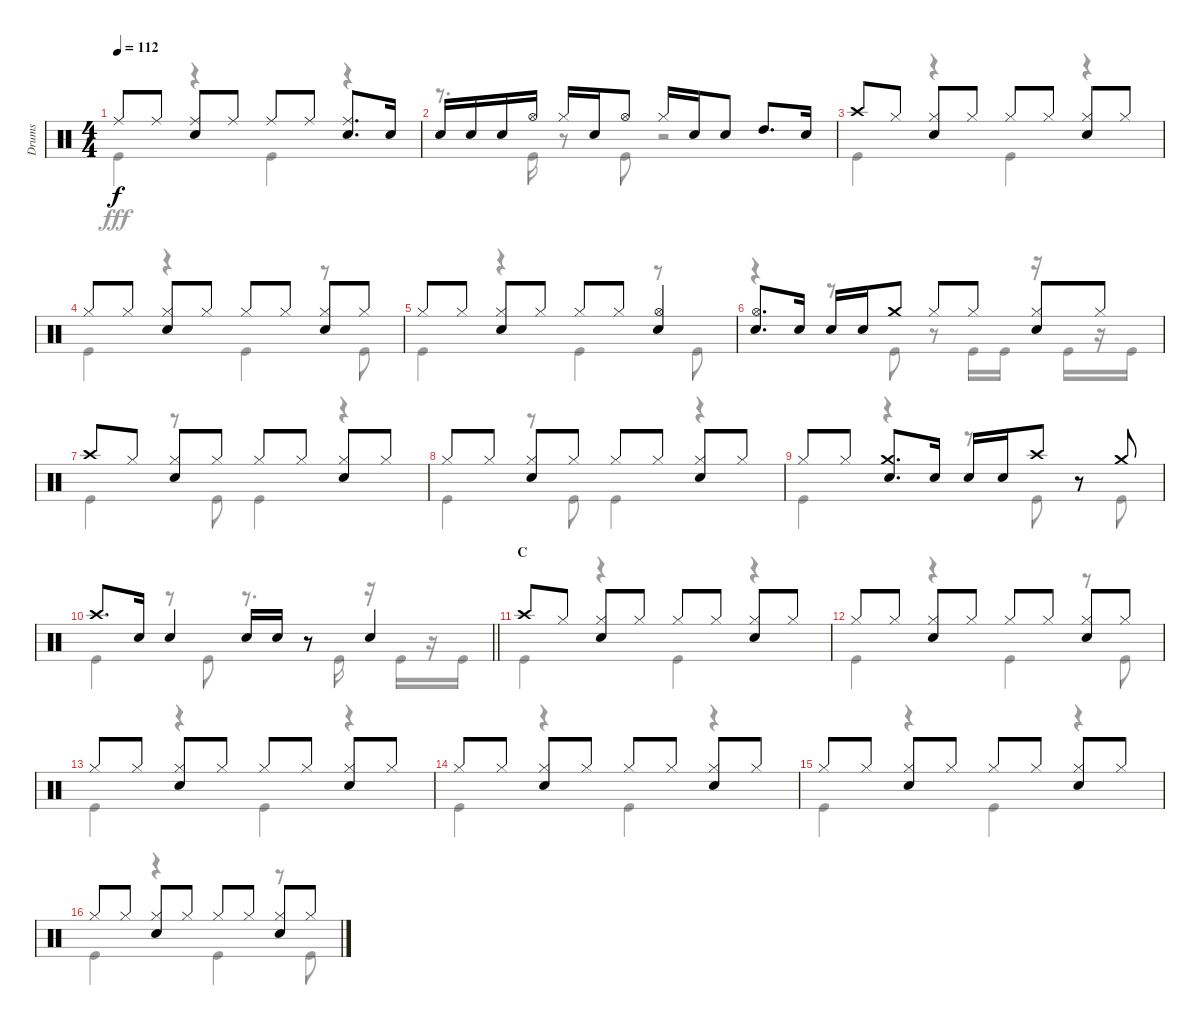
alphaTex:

\track ("Drums" "Drums") {instrument percussion}
\staff {score}
\articulation defaults
\voice
\ts (4 4)
\tempo 112
\clef neutral
\ks c "Ride (middle)".8{dy f} "Ride (middle)".8
("Ride (middle)" "Snare (hit) 2").8 "Ride (middle)".8 "Ride (middle)".8 "Ride (middle)".8 ("Ride (middle)" "Snare (hit) 2").8{d} "Snare (hit) 2".16 |
"Snare (hit) 2".16 "Snare (hit) 2".16 "Snare (hit) 2".16 "Hi-Hat (open)".16 "Hi-Hat (closed)".16 "Snare (hit) 2".16 "Hi-Hat (open)".8 "Hi-Hat (closed)".16 "Snare (hit) 2".16 "Snare (hit) 2".8 "High Tom (hit)".8{d} "Snare (hit) 2".16 |
"Crash high (hit)".8 "Hi-Hat (closed)".8 ("Hi-Hat (closed)" "Snare (hit) 2").8 "Hi-Hat (closed)".8 "Hi-Hat (closed)".8 "Hi-Hat (closed)".8 ("Hi-Hat (closed)" "Snare (hit) 2").8 "Hi-Hat (closed)".8 |
"Hi-Hat (closed)".8 "Hi-Hat (closed)".8 ("Hi-Hat (closed)" "Snare (hit) 2").8 "Hi-Hat (closed)".8 "Hi-Hat (closed)".8 "Hi-Hat (closed)".8 ("Hi-Hat (closed)" "Snare (hit) 2").8 "Hi-Hat (closed)".8 |
"Hi-Hat (closed)".8 "Hi-Hat (closed)".8 ("Hi-Hat (closed)" "Snare (hit) 2").8 "Hi-Hat (closed)".8 "Hi-Hat (closed)".8 "Hi-Hat (closed)".8 ("Hi-Hat (open)" "Snare (hit) 2").4 |
("Hi-Hat (open)" "Snare (hit) 2").8{d} "Snare (hit) 2".16 "Snare (hit) 2".16 "Snare (hit) 2".16 "Crash medium (hit)".8 "Hi-Hat (closed)".8 "Hi-Hat (closed)".8 ("Hi-Hat (closed)" "Snare (hit) 2").8 "Hi-Hat (closed)".8 |
"Crash high (hit)".8 "Hi-Hat (closed)".8 ("Hi-Hat (closed)" "Snare (hit) 2").8 "Hi-Hat (closed)".8 "Hi-Hat (closed)".8 "Hi-Hat (closed)".8 ("Hi-Hat (closed)" "Snare (hit) 2").8 "Hi-Hat (closed)".8 |
"Hi-Hat (closed)".8 "Hi-Hat (closed)".8 ("Hi-Hat (closed)" "Snare (hit) 2").8 "Hi-Hat (closed)".8 "Hi-Hat (closed)".8 "Hi-Hat (closed)".8 ("Hi-Hat (closed)" "Snare (hit) 2").8 "Hi-Hat (closed)".8 |
"Hi-Hat (closed)".8 "Hi-Hat (closed)".8 ("Crash medium (hit)" "Snare (hit) 2").8{d} "Snare (hit) 2".16 "Snare (hit) 2".16 "Snare (hit) 2".16 "Crash high (hit)".8 r.8 "Crash medium (hit)".8 |
\barLineRight lightlight "Crash high (hit)".8{d} "Snare (hit) 2".16 "Snare (hit) 2".4 "Snare (hit) 2".16 "Snare (hit) 2".16
r.8 "Snare (hit) 2".4 |
\section ("" "C")
"Crash high (hit)".8 "Hi-Hat (closed)".8 ("Hi-Hat (closed)" "Snare (hit) 2").8 "Hi-Hat (closed)".8 "Hi-Hat (closed)".8 "Hi-Hat (closed)".8 ("Hi-Hat (closed)" "Snare (hit) 2").8 "Hi-Hat (closed)".8 |
"Hi-Hat (closed)".8 "Hi-Hat (closed)".8 ("Hi-Hat (closed)" "Snare (hit) 2").8 "Hi-Hat (closed)".8 "Hi-Hat (closed)".8 "Hi-Hat (closed)".8 ("Hi-Hat (closed)" "Snare (hit) 2").8 "Hi-Hat (closed)".8 |
"Hi-Hat (closed)".8 "Hi-Hat (closed)".8 ("Hi-Hat (closed)" "Snare (hit) 2").8 "Hi-Hat (closed)".8 "Hi-Hat (closed)".8 "Hi-Hat (closed)".8 ("Hi-Hat (closed)" "Snare (hit) 2").8 "Hi-Hat (closed)".8 |
"Hi-Hat (closed)".8 "Hi-Hat (closed)".8 ("Hi-Hat (closed)" "Snare (hit) 2").8 "Hi-Hat (closed)".8 "Hi-Hat (closed)".8 "Hi-Hat (closed)".8 ("Hi-Hat (closed)" "Snare (hit) 2").8 "Hi-Hat (closed)".8 |
"Hi-Hat (closed)".8 "Hi-Hat (closed)".8 ("Hi-Hat (closed)" "Snare (hit) 2").8 "Hi-Hat (closed)".8 "Hi-Hat (closed)".8 "Hi-Hat (closed)".8 ("Hi-Hat (closed)" "Snare (hit) 2").8 "Hi-Hat (closed)".8 |
"Hi-Hat (closed)".8 "Hi-Hat (closed)".8 ("Hi-Hat (closed)" "Snare (hit) 2").8 "Hi-Hat (closed)".8 "Hi-Hat (closed)".8 "Hi-Hat (closed)".8 ("Hi-Hat (closed)" "Snare (hit) 2").8 "Hi-Hat (closed)".8
\voice
\clef neutral
\ottava regular
\simile none
\ks c "Kick (hit)".4{dy fff}
r.4 "Kick (hit)".4 r.4 |
r.8{d} "Kick (hit)".16 r.8 "Kick (hit)".8 r.2 |
"Kick (hit)".4 r.4 "Kick (hit)".4 r.4 |
"Kick (hit)".4 r.4 "Kick (hit)".4 r.8 "Kick (hit)".8 |
"Kick (hit)".4 r.4 "Kick (hit)".4 r.8 "Kick (hit)".8 |
r.4 r.8 "Kick (hit)".8 r.8 "Kick (hit)".16 "Kick (hit)".16 r.16 "Kick (hit)".16 r.16 "Kick (hit)".16 |
"Kick (hit)".4 r.8 "Kick (hit)".8 "Kick (hit)".4 r.4 |
"Kick (hit)".4 r.8 "Kick (hit)".8 "Kick (hit)".4 r.4 |
"Kick (hit)".4 r.4 r.8 "Kick (hit)".8 r.8 "Kick (hit)".8 |
\barLineRight lightlight "Kick (hit)".4
r.8 "Kick (hit)".8 r.8{d} "Kick (hit)".16 r.16 "Kick (hit)".16 r.16 "Kick (hit)".16 |
"Kick (hit)".4 r.4 "Kick (hit)".4 r.4 |
"Kick (hit)".4 r.4 "Kick (hit)".4 r.8 "Kick (hit)".8 |
"Kick (hit)".4 r.4 "Kick (hit)".4 r.4 |
"Kick (hit)".4 r.4 "Kick (hit)".4 r.4 |
"Kick (hit)".4 r.4 "Kick (hit)".4 r.4 |
"Kick (hit)".4 r.4 "Kick (hit)".4 r.8 "Kick (hit)".8
